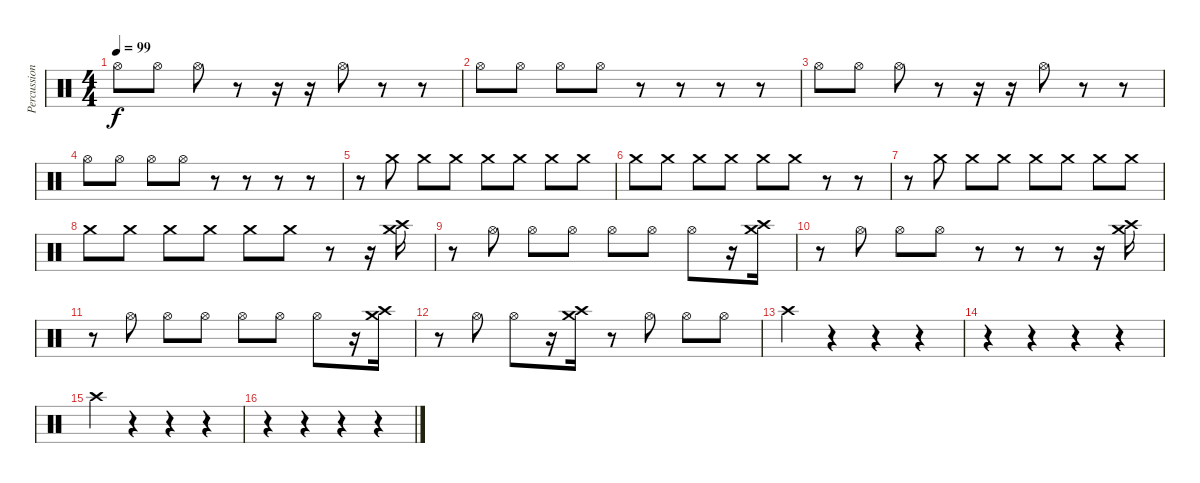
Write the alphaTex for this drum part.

\track ("Percussion2" "Percussion") {instrument percussion}
\staff {score}
\articulation defaults
\ts (4 4)
\tempo 99
\clef neutral
\ks c "Hi-Hat (open)".8{dy f} "Hi-Hat (open)".8 "Hi-Hat (open)".8
r.8 r.16 r.16 "Hi-Hat (open)".8 r.8 r.8 |
"Hi-Hat (open)".8 "Hi-Hat (open)".8 "Hi-Hat (open)".8 "Hi-Hat (open)".8 r.8 r.8 r.8 r.8 |
"Hi-Hat (open)".8 "Hi-Hat (open)".8 "Hi-Hat (open)".8 r.8 r.16 r.16 "Hi-Hat (open)".8 r.8 r.8 |
"Hi-Hat (open)".8 "Hi-Hat (open)".8 "Hi-Hat (open)".8 "Hi-Hat (open)".8 r.8 r.8 r.8 r.8 |
r.8 "Crash medium (hit)".8 "Crash medium (hit)".8 "Crash medium (hit)".8 "Crash medium (hit)".8 "Crash medium (hit)".8 "Crash medium (hit)".8 "Crash medium (hit)".8 |
"Crash medium (hit)".8 "Crash medium (hit)".8 "Crash medium (hit)".8 "Crash medium (hit)".8 "Crash medium (hit)".8 "Crash medium (hit)".8 r.8 r.8 |
r.8 "Crash medium (hit)".8 "Crash medium (hit)".8 "Crash medium (hit)".8 "Crash medium (hit)".8 "Crash medium (hit)".8 "Crash medium (hit)".8 "Crash medium (hit)".8 |
"Crash medium (hit)".8 "Crash medium (hit)".8 "Crash medium (hit)".8 "Crash medium (hit)".8 "Crash medium (hit)".8 "Crash medium (hit)".8 r.8 r.16 ("Crash medium (hit)" "Crash high (hit)").16 |
r.8 "Hi-Hat (open)".8 "Hi-Hat (open)".8 "Hi-Hat (open)".8 "Hi-Hat (open)".8 "Hi-Hat (open)".8 "Hi-Hat (open)".8 r.16 ("Crash medium (hit)" "Crash high (hit)").16 |
r.8 "Hi-Hat (open)".8 "Hi-Hat (open)".8 "Hi-Hat (open)".8 r.8 r.8 r.8 r.16 ("Crash medium (hit)" "Crash high (hit)").16 |
r.8 "Hi-Hat (open)".8 "Hi-Hat (open)".8 "Hi-Hat (open)".8 "Hi-Hat (open)".8 "Hi-Hat (open)".8 "Hi-Hat (open)".8 r.16 ("Crash medium (hit)" "Crash high (hit)").16 |
r.8 "Hi-Hat (open)".8 "Hi-Hat (open)".8 r.16 ("Crash medium (hit)" "Crash high (hit)").16 r.8 "Hi-Hat (open)".8 "Hi-Hat (open)".8 "Hi-Hat (open)".8 |
"Crash high (hit)".4 r.4 r.4 r.4 |
r.4 r.4 r.4 r.4 |
"Crash high (hit)".4 r.4 r.4 r.4 |
r.4 r.4 r.4 r.4
